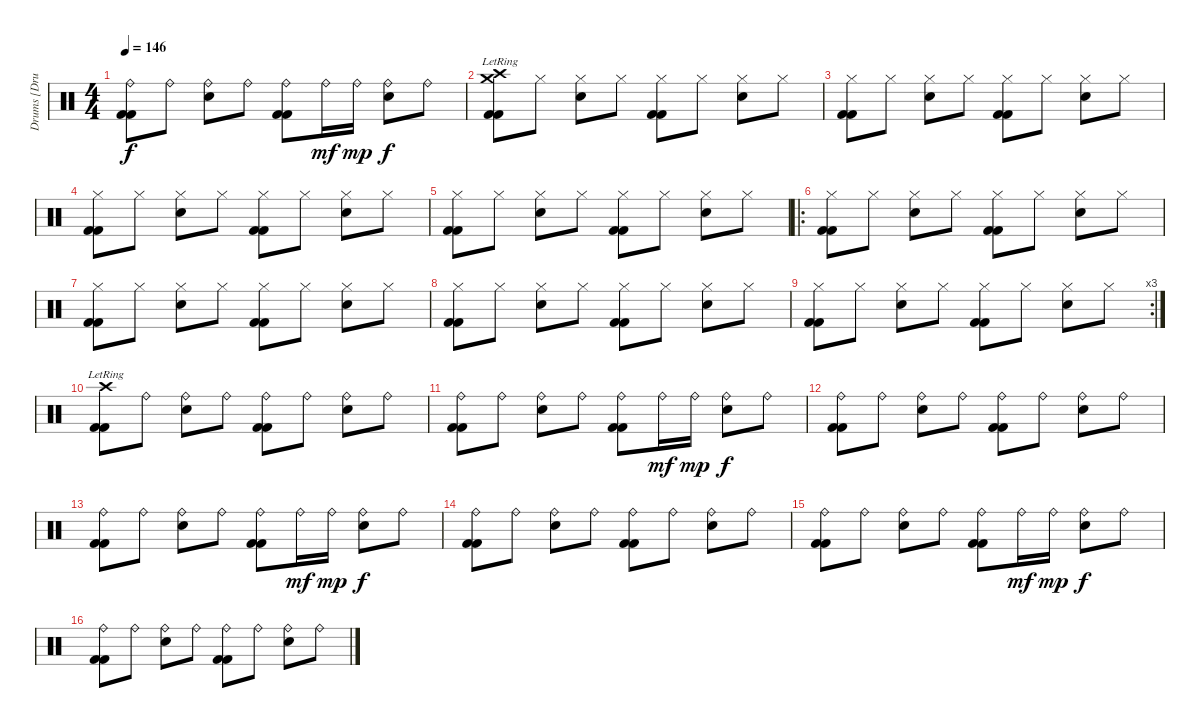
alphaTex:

\track ("Drums [Drums]" "Drums [Dru") {instrument percussion}
\staff {score}
\articulation defaults
\ts (4 4)
\tempo 146
\clef neutral
\ks c
("Ride (bell)" "Kick (hit) 2" "Kick (hit) 2").8{dy f} "Ride (bell)".8 ("Ride (bell)" "Snare (hit) 2").8 "Ride (bell)".8 ("Ride (bell)" "Kick (hit) 2" "Kick (hit) 2").8 "Ride (bell)".16{dy mf} "Ride (bell)".16{dy mp} ("Ride (bell)" "Snare (hit) 2").8{dy f} "Ride (bell)".8 |
("Crash high (hit)"{lr} "Crash medium (hit)"{lr} "Kick (hit) 2" "Kick (hit) 2").8 "Hi-Hat (closed)".8 ("Hi-Hat (closed)" "Snare (hit) 2").8 "Hi-Hat (closed)".8 ("Hi-Hat (closed)" "Kick (hit) 2" "Kick (hit) 2").8 "Hi-Hat (closed)".8 ("Hi-Hat (closed)" "Snare (hit) 2").8 "Hi-Hat (closed)".8 |
("Hi-Hat (closed)" "Kick (hit) 2" "Kick (hit) 2").8 "Hi-Hat (closed)".8 ("Hi-Hat (closed)" "Snare (hit) 2").8 "Hi-Hat (closed)".8 ("Hi-Hat (closed)" "Kick (hit) 2" "Kick (hit) 2").8 "Hi-Hat (closed)".8 ("Hi-Hat (closed)" "Snare (hit) 2").8 "Hi-Hat (closed)".8 |
("Hi-Hat (closed)" "Kick (hit) 2" "Kick (hit) 2").8 "Hi-Hat (closed)".8 ("Hi-Hat (closed)" "Snare (hit) 2").8 "Hi-Hat (closed)".8 ("Hi-Hat (closed)" "Kick (hit) 2" "Kick (hit) 2").8 "Hi-Hat (closed)".8 ("Hi-Hat (closed)" "Snare (hit) 2").8 "Hi-Hat (closed)".8 |
("Hi-Hat (closed)" "Kick (hit) 2" "Kick (hit) 2").8 "Hi-Hat (closed)".8 ("Hi-Hat (closed)" "Snare (hit) 2").8 "Hi-Hat (closed)".8 ("Hi-Hat (closed)" "Kick (hit) 2" "Kick (hit) 2").8 "Hi-Hat (closed)".8 ("Hi-Hat (closed)" "Snare (hit) 2").8 "Hi-Hat (closed)".8 |
\ro
("Hi-Hat (closed)" "Kick (hit) 2" "Kick (hit) 2").8 "Hi-Hat (closed)".8 ("Hi-Hat (closed)" "Snare (hit) 2").8 "Hi-Hat (closed)".8 ("Hi-Hat (closed)" "Kick (hit) 2" "Kick (hit) 2").8 "Hi-Hat (closed)".8 ("Hi-Hat (closed)" "Snare (hit) 2").8 "Hi-Hat (closed)".8 |
("Hi-Hat (closed)" "Kick (hit) 2" "Kick (hit) 2").8 "Hi-Hat (closed)".8 ("Hi-Hat (closed)" "Snare (hit) 2").8 "Hi-Hat (closed)".8 ("Hi-Hat (closed)" "Kick (hit) 2" "Kick (hit) 2").8 "Hi-Hat (closed)".8 ("Hi-Hat (closed)" "Snare (hit) 2").8 "Hi-Hat (closed)".8 |
("Hi-Hat (closed)" "Kick (hit) 2" "Kick (hit) 2").8 "Hi-Hat (closed)".8 ("Hi-Hat (closed)" "Snare (hit) 2").8 "Hi-Hat (closed)".8 ("Hi-Hat (closed)" "Kick (hit) 2" "Kick (hit) 2").8 "Hi-Hat (closed)".8 ("Hi-Hat (closed)" "Snare (hit) 2").8 "Hi-Hat (closed)".8 |
\rc 3
("Hi-Hat (closed)" "Kick (hit) 2" "Kick (hit) 2").8 "Hi-Hat (closed)".8 ("Hi-Hat (closed)" "Snare (hit) 2").8 "Hi-Hat (closed)".8 ("Hi-Hat (closed)" "Kick (hit) 2" "Kick (hit) 2").8 "Hi-Hat (closed)".8 ("Hi-Hat (closed)" "Snare (hit) 2").8 "Hi-Hat (closed)".8 |
("Crash high (hit)"{lr} "Kick (hit) 2" "Kick (hit) 2").8 "Ride (bell)".8 ("Ride (bell)" "Snare (hit) 2").8 "Ride (bell)".8 ("Ride (bell)" "Kick (hit) 2" "Kick (hit) 2").8 "Ride (bell)".8 ("Ride (bell)" "Snare (hit) 2").8 "Ride (bell)".8 |
("Ride (bell)" "Kick (hit) 2" "Kick (hit) 2").8 "Ride (bell)".8 ("Ride (bell)" "Snare (hit) 2").8 "Ride (bell)".8 ("Ride (bell)" "Kick (hit) 2" "Kick (hit) 2").8 "Ride (bell)".16{dy mf} "Ride (bell)".16{dy mp} ("Ride (bell)" "Snare (hit) 2").8{dy f} "Ride (bell)".8 |
("Ride (bell)" "Kick (hit) 2" "Kick (hit) 2").8 "Ride (bell)".8 ("Ride (bell)" "Snare (hit) 2").8 "Ride (bell)".8 ("Ride (bell)" "Kick (hit) 2" "Kick (hit) 2").8 "Ride (bell)".8 ("Ride (bell)" "Snare (hit) 2").8 "Ride (bell)".8 |
("Ride (bell)" "Kick (hit) 2" "Kick (hit) 2").8 "Ride (bell)".8 ("Ride (bell)" "Snare (hit) 2").8 "Ride (bell)".8 ("Ride (bell)" "Kick (hit) 2" "Kick (hit) 2").8 "Ride (bell)".16{dy mf} "Ride (bell)".16{dy mp} ("Ride (bell)" "Snare (hit) 2").8{dy f} "Ride (bell)".8 |
("Ride (bell)" "Kick (hit) 2" "Kick (hit) 2").8 "Ride (bell)".8 ("Ride (bell)" "Snare (hit) 2").8 "Ride (bell)".8 ("Ride (bell)" "Kick (hit) 2" "Kick (hit) 2").8 "Ride (bell)".8 ("Ride (bell)" "Snare (hit) 2").8 "Ride (bell)".8 |
("Ride (bell)" "Kick (hit) 2" "Kick (hit) 2").8 "Ride (bell)".8 ("Ride (bell)" "Snare (hit) 2").8 "Ride (bell)".8 ("Ride (bell)" "Kick (hit) 2" "Kick (hit) 2").8 "Ride (bell)".16{dy mf} "Ride (bell)".16{dy mp} ("Ride (bell)" "Snare (hit) 2").8{dy f} "Ride (bell)".8 |
("Ride (bell)" "Kick (hit) 2" "Kick (hit) 2").8 "Ride (bell)".8 ("Ride (bell)" "Snare (hit) 2").8 "Ride (bell)".8 ("Ride (bell)" "Kick (hit) 2" "Kick (hit) 2").8 "Ride (bell)".8 ("Ride (bell)" "Snare (hit) 2").8 "Ride (bell)".8
